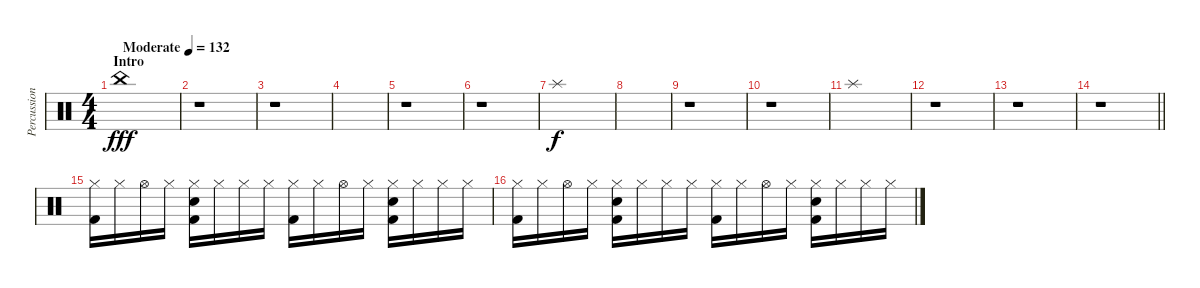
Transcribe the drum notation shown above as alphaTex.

\track ("Percussion I" "Percussion") {instrument percussion}
\staff {score}
\articulation defaults
\ts (4 4)
\section ("" "Intro")
\tempo (132 "Moderate")
\clef neutral
\ks c "China (hit)".1{dy fff}
|
r.1 |
r.1 |
|
r.1 |
r.1 |
"Splash (hit)".1{dy f} |
|
r.1 |
r.1 |
"Splash (hit)".1 |
r.1 |
r.1 |
\barLineRight lightlight
r.1 |
\section ("" "")
("Hi-Hat (closed)" "Kick (hit) 2").16 "Hi-Hat (closed)".16 "Hi-Hat (open)".16 "Hi-Hat (closed)".16 ("Hi-Hat (closed)" "Hand Clap (hit)" "Kick (hit) 2").16 "Hi-Hat (closed)".16 "Hi-Hat (closed)".16 "Hi-Hat (closed)".16 ("Hi-Hat (closed)" "Kick (hit) 2").16 "Hi-Hat (closed)".16 "Hi-Hat (open)".16 "Hi-Hat (closed)".16 ("Hi-Hat (closed)" "Hand Clap (hit)" "Kick (hit) 2").16 "Hi-Hat (closed)".16 "Hi-Hat (closed)".16 "Hi-Hat (closed)".16 |
("Hi-Hat (closed)" "Kick (hit) 2").16 "Hi-Hat (closed)".16 "Hi-Hat (open)".16 "Hi-Hat (closed)".16 ("Hi-Hat (closed)" "Hand Clap (hit)" "Kick (hit) 2").16 "Hi-Hat (closed)".16 "Hi-Hat (closed)".16 "Hi-Hat (closed)".16 ("Hi-Hat (closed)" "Kick (hit) 2").16 "Hi-Hat (closed)".16 "Hi-Hat (open)".16 "Hi-Hat (closed)".16 ("Hi-Hat (closed)" "Hand Clap (hit)" "Kick (hit) 2").16 "Hi-Hat (closed)".16 "Hi-Hat (closed)".16 "Hi-Hat (closed)".16
